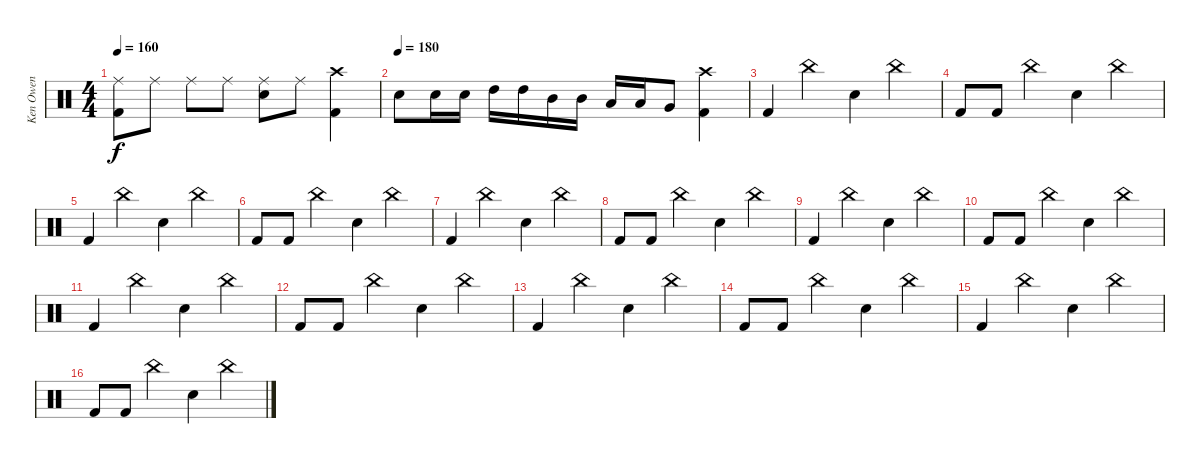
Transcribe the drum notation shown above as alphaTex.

\track ("Ken Owen" "Ken Owen") {instrument percussion}
\staff {score}
\articulation defaults
\ts (4 4)
\tempo 160
\clef neutral
\ks c
("Ride (middle)" "Kick (hit) 2").8{dy f} "Ride (middle)".8 "Ride (middle)".8 "Ride (middle)".8 ("Ride (middle)" "Snare (hit) 2").8 "Ride (middle)".8 ("Crash high (hit)" "Kick (hit) 2").4 |
\tempo (180)
"Snare (hit) 2".8 "Snare (hit) 2".16 "Snare (hit) 2".16 "High Tom (hit)".16 "High Tom (hit)".16 "Mid Tom (hit)".16 "Mid Tom (hit)".16 "Low Tom (hit)".16 "Low Tom (hit)".16 "Very Low Tom (hit)".8 ("Crash high (hit)" "Kick (hit) 2").4 |
"Kick (hit) 2".4 "China (hit)".4 "Snare (hit) 2".4 "China (hit)".4 |
"Kick (hit) 2".8 "Kick (hit) 2".8 "China (hit)".4 "Snare (hit) 2".4 "China (hit)".4 |
"Kick (hit) 2".4 "China (hit)".4 "Snare (hit) 2".4 "China (hit)".4 |
"Kick (hit) 2".8 "Kick (hit) 2".8 "China (hit)".4 "Snare (hit) 2".4 "China (hit)".4 |
"Kick (hit) 2".4 "China (hit)".4 "Snare (hit) 2".4 "China (hit)".4 |
"Kick (hit) 2".8 "Kick (hit) 2".8 "China (hit)".4 "Snare (hit) 2".4 "China (hit)".4 |
"Kick (hit) 2".4 "China (hit)".4 "Snare (hit) 2".4 "China (hit)".4 |
"Kick (hit) 2".8 "Kick (hit) 2".8 "China (hit)".4 "Snare (hit) 2".4 "China (hit)".4 |
"Kick (hit) 2".4 "China (hit)".4 "Snare (hit) 2".4 "China (hit)".4 |
"Kick (hit) 2".8 "Kick (hit) 2".8 "China (hit)".4 "Snare (hit) 2".4 "China (hit)".4 |
"Kick (hit) 2".4 "China (hit)".4 "Snare (hit) 2".4 "China (hit)".4 |
"Kick (hit) 2".8 "Kick (hit) 2".8 "China (hit)".4 "Snare (hit) 2".4 "China (hit)".4 |
"Kick (hit) 2".4 "China (hit)".4 "Snare (hit) 2".4 "China (hit)".4 |
"Kick (hit) 2".8 "Kick (hit) 2".8 "China (hit)".4 "Snare (hit) 2".4 "China (hit)".4
